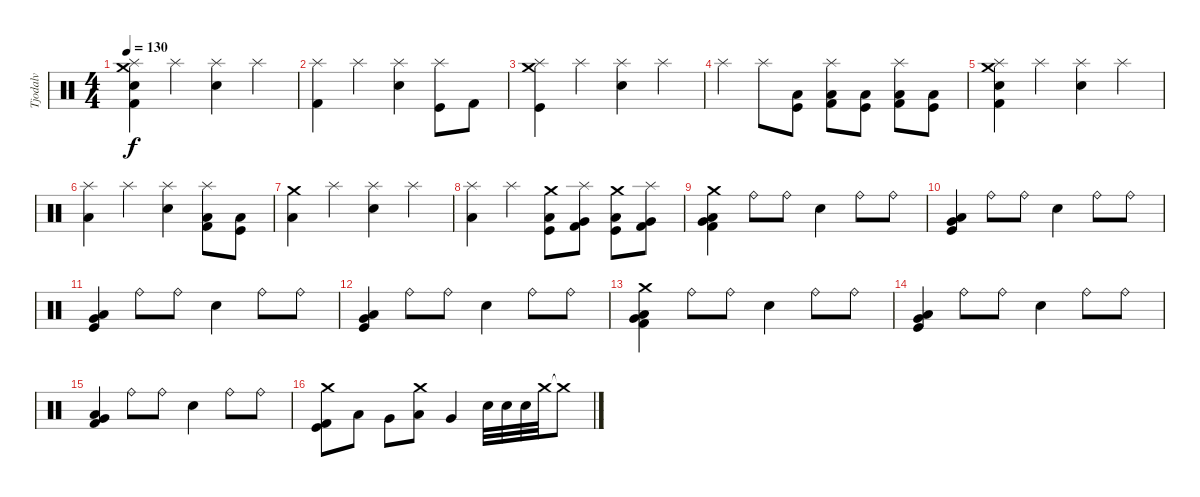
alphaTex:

\track ("Tjodalv" "Tjodalv") {instrument percussion}
\staff {score}
\articulation defaults
\ts (4 4)
\tempo 130
\clef neutral
\ks c
("Crash medium (hit)" "Splash (hit)" "Kick (hit) 2" "Snare (hit) 2").4{dy f} "Splash (hit)".4 ("Splash (hit)" "Snare (hit) 2").4 "Splash (hit)".4 |
("Splash (hit)" "Kick (hit) 2").4 "Splash (hit)".4 ("Splash (hit)" "Snare (hit) 2").4 ("Splash (hit)" "Kick (hit)").8 "Kick (hit) 2".8 |
("Crash medium (hit)" "Splash (hit)" "Kick (hit)").4 "Splash (hit)".4 ("Splash (hit)" "Snare (hit) 2").4 "Splash (hit)".4 |
"Splash (hit)".4 "Splash (hit)".8 ("Low Floor Tom (hit)" "Kick (hit)").8 ("Splash (hit)" "Low Floor Tom (hit)" "Kick (hit) 2").8 ("Low Floor Tom (hit)" "Kick (hit)").8 ("Splash (hit)" "Low Floor Tom (hit)" "Kick (hit) 2").8 ("Low Floor Tom (hit)" "Kick (hit)").8 |
("Crash medium (hit)" "Splash (hit)" "Kick (hit) 2" "Snare (hit) 2").4 "Splash (hit)".4 ("Splash (hit)" "Snare (hit) 2").4 "Splash (hit)".4 |
("Splash (hit)" "Low Floor Tom (hit)").4 "Splash (hit)".4 ("Splash (hit)" "Snare (hit) 2").4 ("Splash (hit)" "Low Floor Tom (hit)" "Kick (hit) 2").8 ("Low Floor Tom (hit)" "Kick (hit)").8 |
("Crash medium (hit)" "Low Floor Tom (hit)").4 "Splash (hit)".4 ("Splash (hit)" "Snare (hit) 2").4 "Splash (hit)".4 |
("Splash (hit)" "Low Floor Tom (hit)").4 "Splash (hit)".4 ("Crash medium (hit)" "Kick (hit)" "Low Floor Tom (hit)").8 ("Splash (hit)" "Kick (hit) 2" "Very Low Tom (hit)").8 ("Crash medium (hit)" "Kick (hit)" "Low Floor Tom (hit)").8 ("Splash (hit)" "Kick (hit) 2" "Very Low Tom (hit)").8 |
("Crash medium (hit)" "Low Floor Tom (hit)" "Very Low Tom (hit)" "Kick (hit) 2").4 "Ride (bell)".8 "Ride (bell)".8 "Snare (hit) 2".4 "Ride (bell)".8 "Ride (bell)".8 |
("Low Floor Tom (hit)" "Very Low Tom (hit)" "Kick (hit)").4 "Ride (bell)".8 "Ride (bell)".8 "Snare (hit) 2".4 "Ride (bell)".8 "Ride (bell)".8 |
("Low Floor Tom (hit)" "Very Low Tom (hit)" "Kick (hit)").4 "Ride (bell)".8 "Ride (bell)".8 "Snare (hit) 2".4 "Ride (bell)".8 "Ride (bell)".8 |
("Low Floor Tom (hit)" "Very Low Tom (hit)" "Kick (hit)").4 "Ride (bell)".8 "Ride (bell)".8 "Snare (hit) 2".4 "Ride (bell)".8 "Ride (bell)".8 |
("Crash medium (hit)" "Low Floor Tom (hit)" "Very Low Tom (hit)" "Kick (hit) 2").4 "Ride (bell)".8 "Ride (bell)".8 "Snare (hit) 2".4 "Ride (bell)".8 "Ride (bell)".8 |
("Low Floor Tom (hit)" "Very Low Tom (hit)" "Kick (hit)").4 "Ride (bell)".8 "Ride (bell)".8 "Snare (hit) 2".4 "Ride (bell)".8 "Ride (bell)".8 |
("Low Floor Tom (hit)" "Very Low Tom (hit)" "Kick (hit) 2").4 "Ride (bell)".8 "Ride (bell)".8 "Snare (hit) 2".4 "Ride (bell)".8 "Ride (bell)".8 |
("Crash medium (hit)" "Kick (hit)" "Kick (hit) 2").8 "Low Floor Tom (hit)".8 "Very Low Tom (hit)".8 ("Crash medium (hit)" "Low Floor Tom (hit)").8 "Very Low Tom (hit)".4 "Snare (hit) 2".32 "Snare (hit) 2".32 "Snare (hit) 2".32 "Crash medium (hit)".32 "Crash medium (hit)"{t}.8
